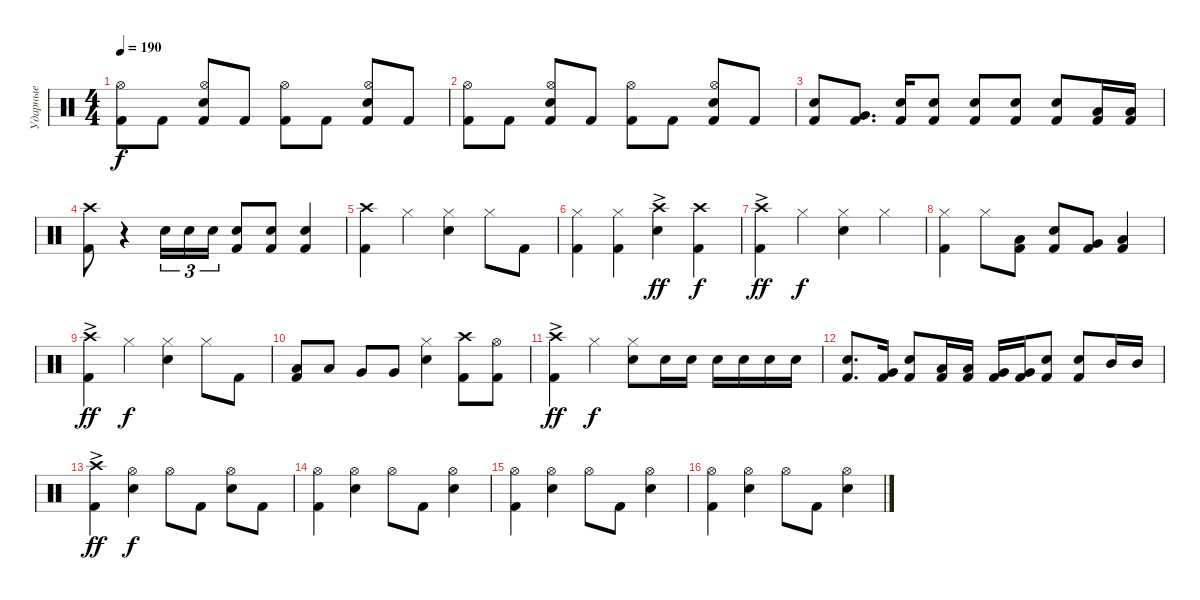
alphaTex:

\track ("Ударные" "Ударные") {instrument percussion}
\staff {score}
\articulation defaults
\ts (4 4)
\tempo 190
\clef neutral
\ks c
("Kick (hit) 2" "Hi-Hat (open)").8{dy f} "Kick (hit) 2".8 ("Kick (hit) 2" "Snare (hit) 2" "Hi-Hat (open)").8 "Kick (hit) 2".8 ("Kick (hit) 2" "Hi-Hat (open)").8 "Kick (hit) 2".8 ("Kick (hit) 2" "Snare (hit) 2" "Hi-Hat (open)").8 "Kick (hit) 2".8 |
("Kick (hit) 2" "Hi-Hat (open)").8 "Kick (hit) 2".8 ("Kick (hit) 2" "Snare (hit) 2" "Hi-Hat (open)").8 "Kick (hit) 2".8 ("Kick (hit) 2" "Hi-Hat (open)").8 "Kick (hit) 2".8 ("Kick (hit) 2" "Snare (hit) 2" "Hi-Hat (open)").8 "Kick (hit) 2".8 |
("Kick (hit) 2" "Electric Snare (hit)").8 ("Kick (hit) 2" "Very Low Tom (hit)").8{d} ("Kick (hit) 2" "Snare (hit) 2").16 ("Kick (hit) 2" "Snare (hit) 2").8 ("Kick (hit) 2" "Snare (hit) 2").8 ("Kick (hit) 2" "Snare (hit) 2").8 ("Kick (hit) 2" "Snare (hit) 2").8 ("Kick (hit) 2" "Low Floor Tom (hit)").16 ("Kick (hit) 2" "Low Floor Tom (hit)").16 |
("Kick (hit) 2" "Crash high (hit)").8 r.4 "Electric Snare (hit)".16{tu (3 2)} "Electric Snare (hit)".16{tu (3 2)} "Snare (hit) 2".16{tu (3 2)} ("Kick (hit) 2" "Snare (hit) 2").8 ("Kick (hit) 2" "Snare (hit) 2").8 ("Kick (hit) 2" "Snare (hit) 2").4 |
("Kick (hit) 2" "Crash high (hit)").4 "Hi-Hat (closed)".4 ("Snare (hit) 2" "Hi-Hat (closed)").4 "Hi-Hat (closed)".8 "Kick (hit) 2".8 |
("Kick (hit) 2" "Hi-Hat (closed)").4 ("Kick (hit) 2" "Hi-Hat (closed)").4 ("Snare (hit) 2" "Crash high (hit)"{ac}).4{dy ff} ("Kick (hit) 2" "Crash high (hit)").4{dy f} |
("Kick (hit) 2" "Crash high (hit)"{ac}).4{dy ff} "Hi-Hat (closed)".4{dy f} ("Snare (hit) 2" "Hi-Hat (closed)").4 "Hi-Hat (closed)".4 |
("Kick (hit) 2" "Hi-Hat (closed)").4 "Hi-Hat (closed)".8 ("Kick (hit) 2" "Low Tom (hit)").8 ("Kick (hit) 2" "Snare (hit) 2").8 ("Kick (hit) 2" "Very Low Tom (hit)").8 ("Kick (hit) 2" "Low Floor Tom (hit)").4 |
("Kick (hit) 2" "Crash high (hit)"{ac}).4{dy ff} "Hi-Hat (closed)".4{dy f} ("Snare (hit) 2" "Hi-Hat (closed)").4 "Hi-Hat (closed)".8 "Kick (hit) 2".8 |
("Kick (hit) 2" "Low Tom (hit)").8 "Low Tom (hit)".8 "Very Low Tom (hit)".8 "Very Low Tom (hit)".8 ("Snare (hit) 2" "Hi-Hat (closed)").4 ("Kick (hit) 2" "Crash high (hit)").8 ("Kick (hit) 2" "Hi-Hat (open)").8 |
("Kick (hit) 2" "Crash high (hit)"{ac}).4{dy ff} "Hi-Hat (closed)".4{dy f} ("Snare (hit) 2" "Hi-Hat (closed)").8 "Snare (hit) 2".16 "Snare (hit) 2".16 "Snare (hit) 2".16 "Snare (hit) 2".16 "Snare (hit) 2".16 "Snare (hit) 2".16 |
("Kick (hit) 2" "Snare (hit) 2").8{d} ("Kick (hit) 2" "Very Low Tom (hit)").16 ("Kick (hit) 2" "Snare (hit) 2").8 ("Kick (hit) 2" "Low Tom (hit)").16 ("Kick (hit) 2" "Low Tom (hit)").16 ("Kick (hit) 2" "Very Low Tom (hit)").16 ("Kick (hit) 2" "Very Low Tom (hit)").16 ("Kick (hit) 2" "Snare (hit) 2").8 ("Kick (hit) 2" "Snare (hit) 2").8 "Mid Tom (hit)".16 "Mid Tom (hit)".16 |
("Kick (hit) 2" "Crash high (hit)"{ac}).4{dy ff} ("Snare (hit) 2" "Hi-Hat (open)").4{dy f} "Hi-Hat (open)".8 "Kick (hit) 2".8 ("Snare (hit) 2" "Hi-Hat (open)").8 "Kick (hit) 2".8 |
("Kick (hit) 2" "Hi-Hat (open)").4 ("Snare (hit) 2" "Hi-Hat (open)").4 "Hi-Hat (open)".8 "Kick (hit) 2".8 ("Snare (hit) 2" "Hi-Hat (open)").4 |
("Kick (hit) 2" "Hi-Hat (open)").4 ("Snare (hit) 2" "Hi-Hat (open)").4 "Hi-Hat (open)".8 "Kick (hit) 2".8 ("Snare (hit) 2" "Hi-Hat (open)").4 |
("Kick (hit) 2" "Hi-Hat (open)").4 ("Snare (hit) 2" "Hi-Hat (open)").4 "Hi-Hat (open)".8 "Kick (hit) 2".8 ("Snare (hit) 2" "Hi-Hat (open)").4
